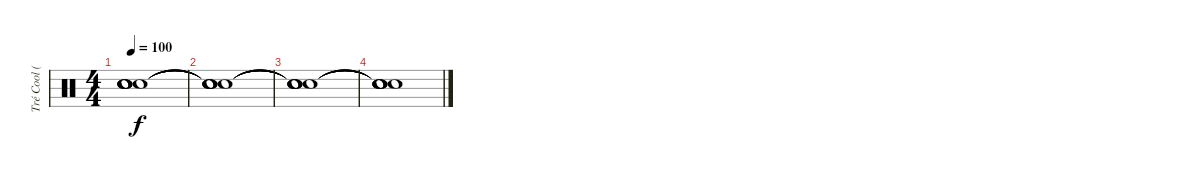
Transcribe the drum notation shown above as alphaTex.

\track ("Tré Cool (Drums)" "Tré Cool (") {instrument percussion}
\staff {score}
\articulation defaults
\ts (4 4)
\tempo 100
\clef neutral
\ks c
("Snare (hit)"{t} "Snare (hit)"{t} "Snare (hit)"{t} "Snare (hit)"{t} "Snare (hit)"{t}).1{dy f} |
("Snare (hit)"{t} "Snare (hit)"{t} "Snare (hit)"{t} "Snare (hit)"{t} "Snare (hit)"{t}).1 |
("Snare (hit)"{t} "Snare (hit)"{t} "Snare (hit)"{t} "Snare (hit)"{t} "Snare (hit)"{t}).1 |
("Snare (hit)"{t} "Snare (hit)"{t} "Snare (hit)"{t} "Snare (hit)"{t} "Snare (hit)"{t}).1
